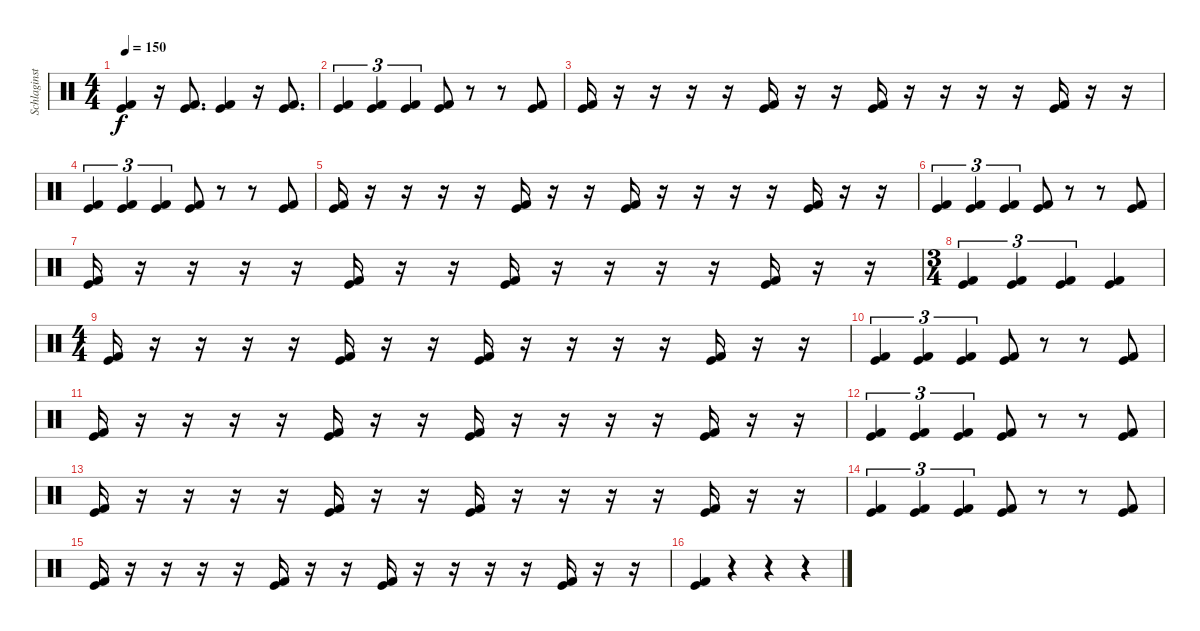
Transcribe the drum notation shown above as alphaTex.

\track ("Schlaginstrumente - Auswahl" "Schlaginst") {instrument percussion}
\staff {score}
\articulation defaults
\ts (4 4)
\tempo 150
\clef neutral
\ks c
("Kick (hit)" "Kick (hit) 2").4{dy f} r.16 ("Kick (hit)" "Kick (hit) 2").8{d} ("Kick (hit)" "Kick (hit) 2").4 r.16 ("Kick (hit)" "Kick (hit) 2").8{d} |
("Kick (hit)" "Kick (hit) 2").4{tu (3 2)} ("Kick (hit)" "Kick (hit) 2").4{tu (3 2)} ("Kick (hit)" "Kick (hit) 2").4{tu (3 2)} ("Kick (hit)" "Kick (hit) 2").8 r.8 r.8 ("Kick (hit)" "Kick (hit) 2").8 |
("Kick (hit)" "Kick (hit) 2").16 r.16 r.16 r.16 r.16 ("Kick (hit)" "Kick (hit) 2").16 r.16 r.16 ("Kick (hit)" "Kick (hit) 2").16 r.16 r.16 r.16 r.16 ("Kick (hit)" "Kick (hit) 2").16 r.16 r.16 |
("Kick (hit)" "Kick (hit) 2").4{tu (3 2)} ("Kick (hit)" "Kick (hit) 2").4{tu (3 2)} ("Kick (hit)" "Kick (hit) 2").4{tu (3 2)} ("Kick (hit)" "Kick (hit) 2").8 r.8 r.8 ("Kick (hit)" "Kick (hit) 2").8 |
("Kick (hit)" "Kick (hit) 2").16 r.16 r.16 r.16 r.16 ("Kick (hit)" "Kick (hit) 2").16 r.16 r.16 ("Kick (hit)" "Kick (hit) 2").16 r.16 r.16 r.16 r.16 ("Kick (hit)" "Kick (hit) 2").16 r.16 r.16 |
("Kick (hit)" "Kick (hit) 2").4{tu (3 2)} ("Kick (hit)" "Kick (hit) 2").4{tu (3 2)} ("Kick (hit)" "Kick (hit) 2").4{tu (3 2)} ("Kick (hit)" "Kick (hit) 2").8 r.8 r.8 ("Kick (hit)" "Kick (hit) 2").8 |
("Kick (hit)" "Kick (hit) 2").16 r.16 r.16 r.16 r.16 ("Kick (hit)" "Kick (hit) 2").16 r.16 r.16 ("Kick (hit)" "Kick (hit) 2").16 r.16 r.16 r.16 r.16 ("Kick (hit)" "Kick (hit) 2").16 r.16 r.16 |
\ts (3 4)
("Kick (hit)" "Kick (hit) 2").4{tu (3 2)} ("Kick (hit)" "Kick (hit) 2").4{tu (3 2)} ("Kick (hit)" "Kick (hit) 2").4{tu (3 2)} ("Kick (hit)" "Kick (hit) 2").4 |
\ts (4 4)
("Kick (hit)" "Kick (hit) 2").16 r.16 r.16 r.16 r.16 ("Kick (hit)" "Kick (hit) 2").16 r.16 r.16 ("Kick (hit)" "Kick (hit) 2").16 r.16 r.16 r.16 r.16 ("Kick (hit)" "Kick (hit) 2").16 r.16 r.16 |
("Kick (hit)" "Kick (hit) 2").4{tu (3 2)} ("Kick (hit)" "Kick (hit) 2").4{tu (3 2)} ("Kick (hit)" "Kick (hit) 2").4{tu (3 2)} ("Kick (hit)" "Kick (hit) 2").8 r.8 r.8 ("Kick (hit)" "Kick (hit) 2").8 |
("Kick (hit)" "Kick (hit) 2").16 r.16 r.16 r.16 r.16 ("Kick (hit)" "Kick (hit) 2").16 r.16 r.16 ("Kick (hit)" "Kick (hit) 2").16 r.16 r.16 r.16 r.16 ("Kick (hit)" "Kick (hit) 2").16 r.16 r.16 |
("Kick (hit)" "Kick (hit) 2").4{tu (3 2)} ("Kick (hit)" "Kick (hit) 2").4{tu (3 2)} ("Kick (hit)" "Kick (hit) 2").4{tu (3 2)} ("Kick (hit)" "Kick (hit) 2").8 r.8 r.8 ("Kick (hit)" "Kick (hit) 2").8 |
("Kick (hit)" "Kick (hit) 2").16 r.16 r.16 r.16 r.16 ("Kick (hit)" "Kick (hit) 2").16 r.16 r.16 ("Kick (hit)" "Kick (hit) 2").16 r.16 r.16 r.16 r.16 ("Kick (hit)" "Kick (hit) 2").16 r.16 r.16 |
("Kick (hit)" "Kick (hit) 2").4{tu (3 2)} ("Kick (hit)" "Kick (hit) 2").4{tu (3 2)} ("Kick (hit)" "Kick (hit) 2").4{tu (3 2)} ("Kick (hit)" "Kick (hit) 2").8 r.8 r.8 ("Kick (hit)" "Kick (hit) 2").8 |
("Kick (hit)" "Kick (hit) 2").16 r.16 r.16 r.16 r.16 ("Kick (hit)" "Kick (hit) 2").16 r.16 r.16 ("Kick (hit)" "Kick (hit) 2").16 r.16 r.16 r.16 r.16 ("Kick (hit)" "Kick (hit) 2").16 r.16 r.16 |
("Kick (hit)" "Kick (hit) 2").4 r.4 r.4 r.4
